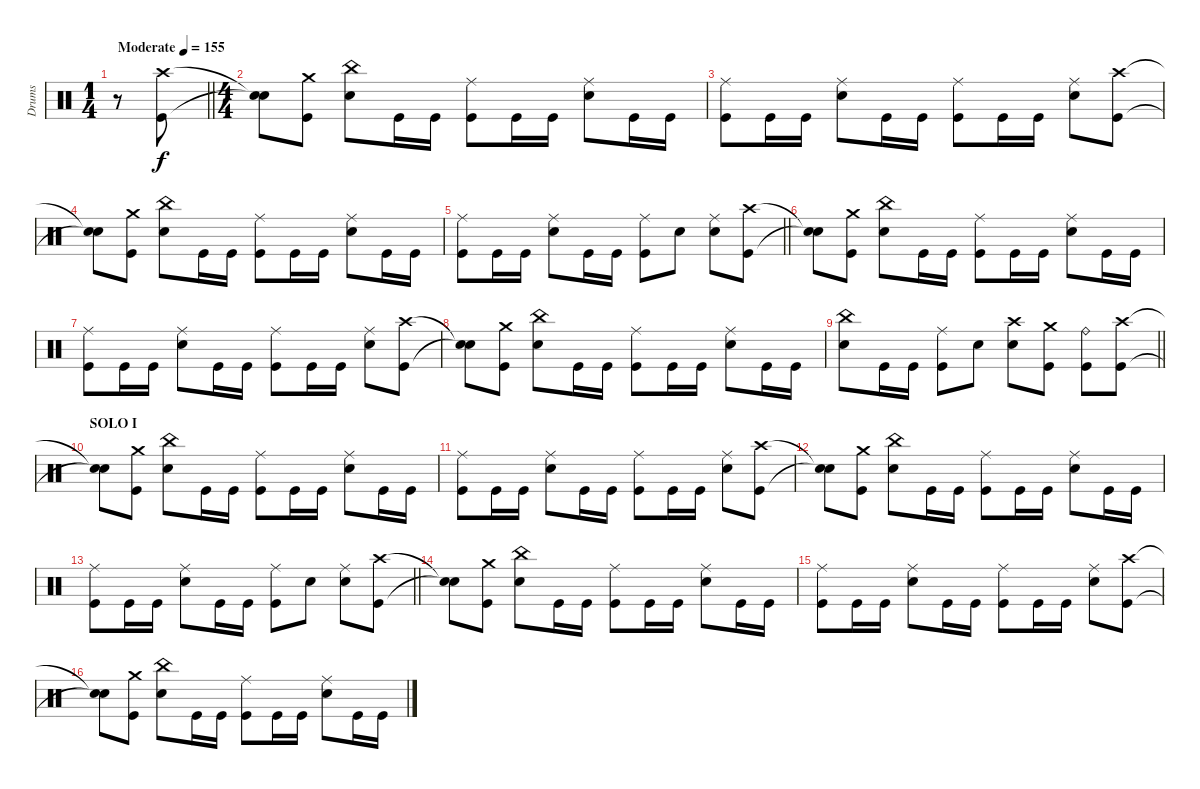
\track ("Drums" "Drums") {instrument percussion}
\staff
\articulation defaults
\ts (1 4)
\tempo (155 "Moderate")
\clef neutral
\barLineRight lightlight
\ks c
r.8{dy f} ("Crash high (hit)" "Kick (hit)").8 |
\ts (4 4)
("Snare (hit)"{t} "Snare (hit)"{t}).8 ("Crash medium (hit)" "Kick (hit)").8 ("China (hit)" "Electric Snare (hit)").8 "Kick (hit)".16 "Kick (hit)".16 ("Ride (middle)" "Kick (hit)").8 "Kick (hit)".16 "Kick (hit)".16 ("Ride (middle)" "Electric Snare (hit)").8 "Kick (hit)".16 "Kick (hit)".16 |
("Ride (middle)" "Kick (hit)").8 "Kick (hit)".16 "Kick (hit)".16 ("Ride (middle)" "Electric Snare (hit)").8 "Kick (hit)".16 "Kick (hit)".16 ("Ride (middle)" "Kick (hit)").8 "Kick (hit)".16 "Kick (hit)".16 ("Ride (middle)" "Electric Snare (hit)").8 ("Crash high (hit)" "Kick (hit)").8 |
("Snare (hit)"{t} "Snare (hit)"{t}).8 ("Crash medium (hit)" "Kick (hit)").8 ("China (hit)" "Electric Snare (hit)").8 "Kick (hit)".16 "Kick (hit)".16 ("Ride (middle)" "Kick (hit)").8 "Kick (hit)".16 "Kick (hit)".16 ("Ride (middle)" "Electric Snare (hit)").8 "Kick (hit)".16 "Kick (hit)".16 |
\barLineRight lightlight
("Ride (middle)" "Kick (hit)").8 "Kick (hit)".16 "Kick (hit)".16 ("Ride (middle)" "Electric Snare (hit)").8 "Kick (hit)".16 "Kick (hit)".16 ("Ride (middle)" "Kick (hit)").8 "Electric Snare (hit)".8 ("Ride (middle)" "Electric Snare (hit)").8 ("Crash high (hit)" "Kick (hit)").8 |
("Snare (hit)"{t} "Snare (hit)"{t}).8 ("Crash medium (hit)" "Kick (hit)").8 ("China (hit)" "Electric Snare (hit)").8 "Kick (hit)".16 "Kick (hit)".16 ("Ride (middle)" "Kick (hit)").8 "Kick (hit)".16 "Kick (hit)".16 ("Ride (middle)" "Electric Snare (hit)").8 "Kick (hit)".16 "Kick (hit)".16 |
("Ride (middle)" "Kick (hit)").8 "Kick (hit)".16 "Kick (hit)".16 ("Ride (middle)" "Electric Snare (hit)").8 "Kick (hit)".16 "Kick (hit)".16 ("Ride (middle)" "Kick (hit)").8 "Kick (hit)".16 "Kick (hit)".16 ("Ride (middle)" "Electric Snare (hit)").8 ("Crash high (hit)" "Kick (hit)").8 |
("Snare (hit)"{t} "Snare (hit)"{t}).8 ("Crash medium (hit)" "Kick (hit)").8 ("China (hit)" "Electric Snare (hit)").8 "Kick (hit)".16 "Kick (hit)".16 ("Ride (middle)" "Kick (hit)").8 "Kick (hit)".16 "Kick (hit)".16 ("Ride (middle)" "Electric Snare (hit)").8 "Kick (hit)".16 "Kick (hit)".16 |
\barLineRight lightlight
("China (hit)" "Electric Snare (hit)").8 "Kick (hit)".16 "Kick (hit)".16 ("Ride (middle)" "Kick (hit)").8 "Electric Snare (hit)".8 ("Crash high (hit)" "Electric Snare (hit)").8 ("Crash medium (hit)" "Kick (hit)").8 ("Ride (bell)" "Kick (hit)").8 ("Crash high (hit)" "Kick (hit)").8 |
\section ("" "SOLO I")
("Snare (hit)"{t} "Snare (hit)"{t}).8 ("Crash medium (hit)" "Kick (hit)").8 ("China (hit)" "Electric Snare (hit)").8 "Kick (hit)".16 "Kick (hit)".16 ("Ride (middle)" "Kick (hit)").8 "Kick (hit)".16 "Kick (hit)".16 ("Ride (middle)" "Electric Snare (hit)").8 "Kick (hit)".16 "Kick (hit)".16 |
("Ride (middle)" "Kick (hit)").8 "Kick (hit)".16 "Kick (hit)".16 ("Ride (middle)" "Electric Snare (hit)").8 "Kick (hit)".16 "Kick (hit)".16 ("Ride (middle)" "Kick (hit)").8 "Kick (hit)".16 "Kick (hit)".16 ("Ride (middle)" "Electric Snare (hit)").8 ("Crash high (hit)" "Kick (hit)").8 |
("Snare (hit)"{t} "Snare (hit)"{t}).8 ("Crash medium (hit)" "Kick (hit)").8 ("China (hit)" "Electric Snare (hit)").8 "Kick (hit)".16 "Kick (hit)".16 ("Ride (middle)" "Kick (hit)").8 "Kick (hit)".16 "Kick (hit)".16 ("Ride (middle)" "Electric Snare (hit)").8 "Kick (hit)".16 "Kick (hit)".16 |
\barLineRight lightlight
("Ride (middle)" "Kick (hit)").8 "Kick (hit)".16 "Kick (hit)".16 ("Ride (middle)" "Electric Snare (hit)").8 "Kick (hit)".16 "Kick (hit)".16 ("Ride (middle)" "Kick (hit)").8 "Electric Snare (hit)".8 ("Ride (middle)" "Electric Snare (hit)").8 ("Crash high (hit)" "Kick (hit)").8 |
("Snare (hit)"{t} "Snare (hit)"{t}).8 ("Crash medium (hit)" "Kick (hit)").8 ("China (hit)" "Electric Snare (hit)").8 "Kick (hit)".16 "Kick (hit)".16 ("Ride (middle)" "Kick (hit)").8 "Kick (hit)".16 "Kick (hit)".16 ("Ride (middle)" "Electric Snare (hit)").8 "Kick (hit)".16 "Kick (hit)".16 |
("Ride (middle)" "Kick (hit)").8 "Kick (hit)".16 "Kick (hit)".16 ("Ride (middle)" "Electric Snare (hit)").8 "Kick (hit)".16 "Kick (hit)".16 ("Ride (middle)" "Kick (hit)").8 "Kick (hit)".16 "Kick (hit)".16 ("Ride (middle)" "Electric Snare (hit)").8 ("Crash high (hit)" "Kick (hit)").8 |
("Snare (hit)"{t} "Snare (hit)"{t}).8 ("Crash medium (hit)" "Kick (hit)").8 ("China (hit)" "Electric Snare (hit)").8 "Kick (hit)".16 "Kick (hit)".16 ("Ride (middle)" "Kick (hit)").8 "Kick (hit)".16 "Kick (hit)".16 ("Ride (middle)" "Electric Snare (hit)").8 "Kick (hit)".16 "Kick (hit)".16
